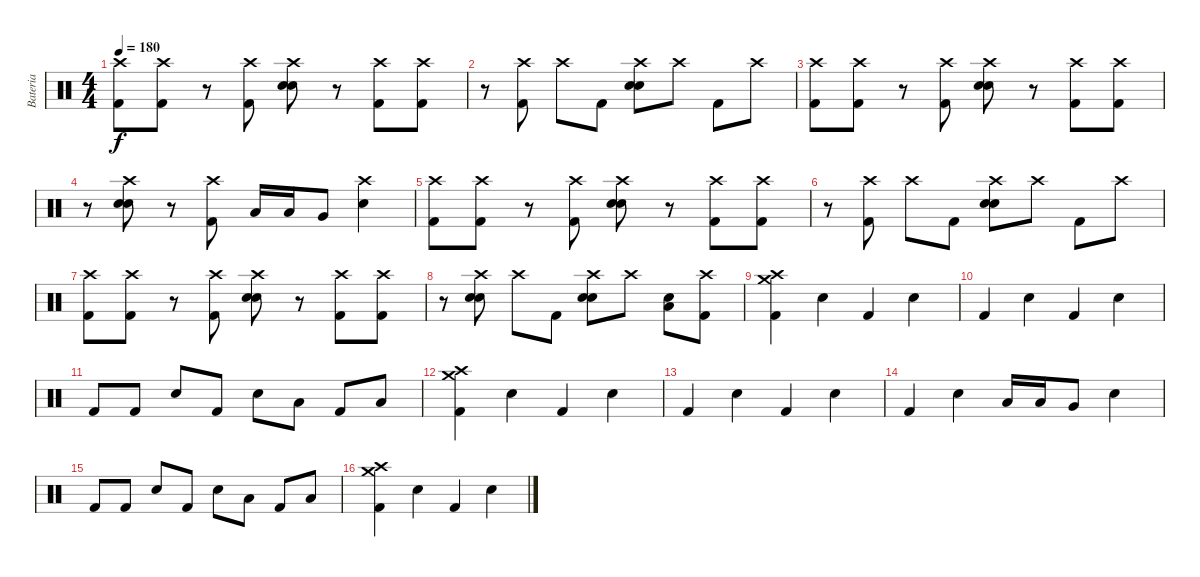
\track ("Bateria" "Bateria") {instrument percussion}
\staff {score}
\articulation defaults
\ts (4 4)
\tempo 180
\clef neutral
\ks c
("Crash high (hit)" "Kick (hit) 2").8{dy f} ("Crash high (hit)" "Kick (hit) 2").8 r.8 ("Crash high (hit)" "Kick (hit) 2").8 ("Crash high (hit)" "Snare (hit) 2" "Electric Snare (hit)").8 r.8 ("Crash high (hit)" "Kick (hit) 2").8 ("Crash high (hit)" "Kick (hit) 2").8 |
r.8 ("Crash high (hit)" "Kick (hit) 2").8 "Crash high (hit)".8 "Kick (hit) 2".8 ("Crash high (hit)" "Snare (hit) 2" "Electric Snare (hit)").8 "Crash high (hit)".8 "Kick (hit) 2".8 "Crash high (hit)".8 |
("Crash high (hit)" "Kick (hit) 2").8 ("Crash high (hit)" "Kick (hit) 2").8 r.8 ("Crash high (hit)" "Kick (hit) 2").8 ("Crash high (hit)" "Snare (hit) 2" "Electric Snare (hit)").8 r.8 ("Crash high (hit)" "Kick (hit) 2").8 ("Crash high (hit)" "Kick (hit) 2").8 |
r.8 ("Crash high (hit)" "Snare (hit) 2" "Electric Snare (hit)").8 r.8 ("Crash high (hit)" "Kick (hit) 2").8 "Low Tom (hit)".16 "Low Tom (hit)".16 "Very Low Tom (hit)".8 ("Crash high (hit)" "Electric Snare (hit)").4 |
("Crash high (hit)" "Kick (hit) 2").8 ("Crash high (hit)" "Kick (hit) 2").8 r.8 ("Crash high (hit)" "Kick (hit) 2").8 ("Crash high (hit)" "Snare (hit) 2" "Electric Snare (hit)").8 r.8 ("Crash high (hit)" "Kick (hit) 2").8 ("Crash high (hit)" "Kick (hit) 2").8 |
r.8 ("Crash high (hit)" "Kick (hit) 2").8 "Crash high (hit)".8 "Kick (hit) 2".8 ("Crash high (hit)" "Snare (hit) 2" "Electric Snare (hit)").8 "Crash high (hit)".8 "Kick (hit) 2".8 "Crash high (hit)".8 |
("Crash high (hit)" "Kick (hit) 2").8 ("Crash high (hit)" "Kick (hit) 2").8 r.8 ("Crash high (hit)" "Kick (hit) 2").8 ("Crash high (hit)" "Snare (hit) 2" "Electric Snare (hit)").8 r.8 ("Crash high (hit)" "Kick (hit) 2").8 ("Crash high (hit)" "Kick (hit) 2").8 |
r.8 ("Crash high (hit)" "Snare (hit) 2" "Electric Snare (hit)").8 "Crash high (hit)".8 "Kick (hit) 2".8 ("Crash high (hit)" "Snare (hit) 2" "Electric Snare (hit)").8 "Crash high (hit)".8 ("Low Tom (hit)" "Electric Snare (hit)").8 ("Crash high (hit)" "Kick (hit) 2").8 |
("Crash high (hit)" "Crash medium (hit)" "Kick (hit) 2").4 "Electric Snare (hit)".4 "Kick (hit) 2".4 "Electric Snare (hit)".4 |
"Kick (hit) 2".4 "Electric Snare (hit)".4 "Kick (hit) 2".4 "Electric Snare (hit)".4 |
"Kick (hit) 2".8 "Kick (hit) 2".8 "Electric Snare (hit)".8 "Kick (hit) 2".8 "Electric Snare (hit)".8 "Low Tom (hit)".8 "Kick (hit) 2".8 "Low Tom (hit)".8 |
("Crash high (hit)" "Crash medium (hit)" "Kick (hit) 2").4 "Electric Snare (hit)".4 "Kick (hit) 2".4 "Electric Snare (hit)".4 |
"Kick (hit) 2".4 "Electric Snare (hit)".4 "Kick (hit) 2".4 "Electric Snare (hit)".4 |
"Kick (hit) 2".4 "Electric Snare (hit)".4 "Low Tom (hit)".16 "Low Tom (hit)".16 "Very Low Tom (hit)".8 "Electric Snare (hit)".4 |
"Kick (hit) 2".8 "Kick (hit) 2".8 "Electric Snare (hit)".8 "Kick (hit) 2".8 "Electric Snare (hit)".8 "Low Tom (hit)".8 "Kick (hit) 2".8 "Low Tom (hit)".8 |
("Crash high (hit)" "Crash medium (hit)" "Kick (hit) 2").4 "Electric Snare (hit)".4 "Kick (hit) 2".4 "Electric Snare (hit)".4
